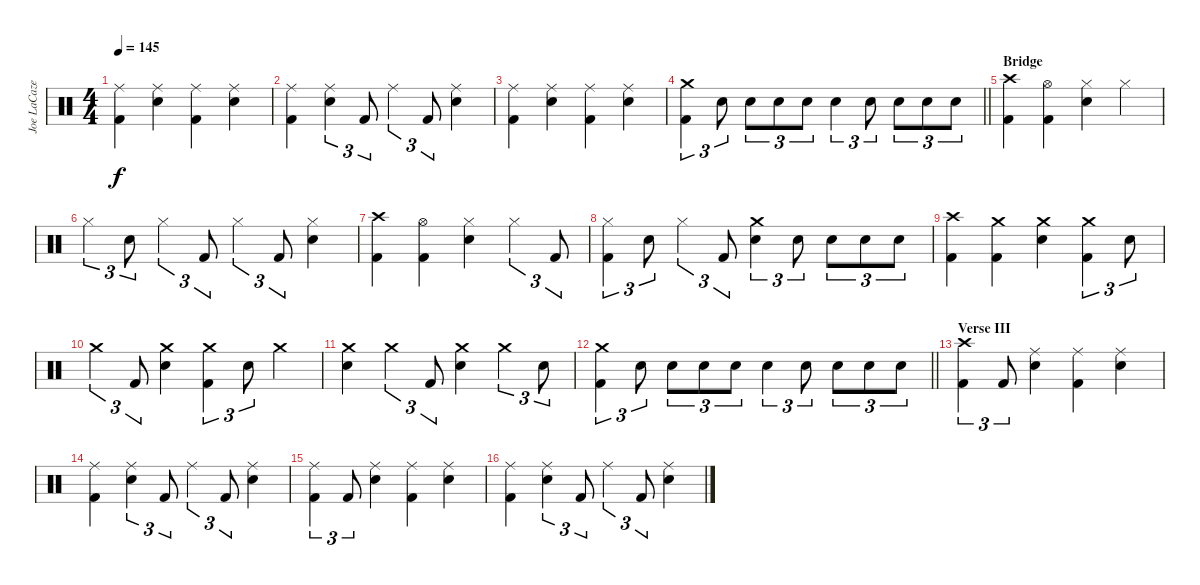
\track ("Joe LaCaze" "Joe LaCaze") {instrument percussion}
\staff {score}
\articulation defaults
\ts (4 4)
\tempo 145
\clef neutral
\ks c
("Ride (middle)" "Kick (hit) 2").4{dy f} ("Ride (middle)" "Electric Snare (hit)").4 ("Ride (middle)" "Kick (hit) 2").4 ("Ride (middle)" "Electric Snare (hit)").4 |
("Ride (middle)" "Kick (hit) 2").4 ("Ride (middle)" "Electric Snare (hit)").4{tu (3 2)} "Kick (hit) 2".8{tu (3 2)} "Ride (middle)".4{tu (3 2)} "Kick (hit) 2".8{tu (3 2)} ("Ride (middle)" "Electric Snare (hit)").4 |
("Ride (middle)" "Kick (hit) 2").4 ("Ride (middle)" "Electric Snare (hit)").4 ("Ride (middle)" "Kick (hit) 2").4 ("Ride (middle)" "Electric Snare (hit)").4 |
\barLineRight lightlight
("Crash medium (hit)" "Kick (hit) 2").4{tu (3 2)} "Electric Snare (hit)".8{tu (3 2)} "Electric Snare (hit)".8{tu (3 2)} "Electric Snare (hit)".8{tu (3 2)} "Electric Snare (hit)".8{tu (3 2)} "Electric Snare (hit)".4{tu (3 2)} "Electric Snare (hit)".8{tu (3 2)} "Electric Snare (hit)".8{tu (3 2)} "Electric Snare (hit)".8{tu (3 2)} "Electric Snare (hit)".8{tu (3 2)} |
\section ("" "Bridge")
("Crash high (hit)" "Kick (hit) 2").4 ("Hi-Hat (open)" "Kick (hit) 2").4 ("Hi-Hat (closed)" "Electric Snare (hit)").4 "Hi-Hat (closed)".4 |
"Hi-Hat (closed)".4{tu (3 2)} "Electric Snare (hit)".8{tu (3 2)} "Hi-Hat (closed)".4{tu (3 2)} "Kick (hit) 2".8{tu (3 2)} "Hi-Hat (closed)".4{tu (3 2)} "Kick (hit) 2".8{tu (3 2)} ("Hi-Hat (closed)" "Electric Snare (hit)").4 |
("Crash high (hit)" "Kick (hit) 2").4 ("Hi-Hat (open)" "Kick (hit) 2").4 ("Hi-Hat (closed)" "Electric Snare (hit)").4 "Hi-Hat (closed)".4{tu (3 2)} "Kick (hit) 2".8{tu (3 2)} |
("Hi-Hat (closed)" "Kick (hit) 2").4{tu (3 2)} "Electric Snare (hit)".8{tu (3 2)} "Hi-Hat (closed)".4{tu (3 2)} "Kick (hit) 2".8{tu (3 2)} ("Crash medium (hit)" "Electric Snare (hit)").4{tu (3 2)} "Electric Snare (hit)".8{tu (3 2)} "Electric Snare (hit)".8{tu (3 2)} "Electric Snare (hit)".8{tu (3 2)} "Electric Snare (hit)".8{tu (3 2)} |
("Crash high (hit)" "Kick (hit) 2").4 ("Crash medium (hit)" "Kick (hit) 2").4 ("Crash medium (hit)" "Electric Snare (hit)").4 ("Crash medium (hit)" "Kick (hit) 2").4{tu (3 2)} "Electric Snare (hit)".8{tu (3 2)} |
"Crash medium (hit)".4{tu (3 2)} "Kick (hit) 2".8{tu (3 2)} ("Crash medium (hit)" "Electric Snare (hit)").4 ("Crash medium (hit)" "Kick (hit) 2").4{tu (3 2)} "Electric Snare (hit)".8{tu (3 2)} "Crash medium (hit)".4 |
("Crash medium (hit)" "Electric Snare (hit)").4 "Crash medium (hit)".4{tu (3 2)} "Kick (hit) 2".8{tu (3 2)} ("Crash medium (hit)" "Electric Snare (hit)").4 "Crash medium (hit)".4{tu (3 2)} "Electric Snare (hit)".8{tu (3 2)} |
\barLineRight lightlight
("Crash medium (hit)" "Kick (hit) 2").4{tu (3 2)} "Electric Snare (hit)".8{tu (3 2)} "Electric Snare (hit)".8{tu (3 2)} "Electric Snare (hit)".8{tu (3 2)} "Electric Snare (hit)".8{tu (3 2)} "Electric Snare (hit)".4{tu (3 2)} "Electric Snare (hit)".8{tu (3 2)} "Electric Snare (hit)".8{tu (3 2)} "Electric Snare (hit)".8{tu (3 2)} "Electric Snare (hit)".8{tu (3 2)} |
\section ("" "Verse III")
("Crash high (hit)" "Kick (hit) 2").4{tu (3 2)} "Kick (hit) 2".8{tu (3 2)} ("Ride (middle)" "Electric Snare (hit)").4 ("Ride (middle)" "Kick (hit) 2").4 ("Ride (middle)" "Electric Snare (hit)").4 |
("Ride (middle)" "Kick (hit) 2").4 ("Ride (middle)" "Electric Snare (hit)").4{tu (3 2)} "Kick (hit) 2".8{tu (3 2)} "Ride (middle)".4{tu (3 2)} "Kick (hit) 2".8{tu (3 2)} ("Ride (middle)" "Electric Snare (hit)").4 |
("Ride (middle)" "Kick (hit) 2").4{tu (3 2)} "Kick (hit) 2".8{tu (3 2)} ("Ride (middle)" "Electric Snare (hit)").4 ("Ride (middle)" "Kick (hit) 2").4 ("Ride (middle)" "Electric Snare (hit)").4 |
("Ride (middle)" "Kick (hit) 2").4 ("Ride (middle)" "Electric Snare (hit)").4{tu (3 2)} "Kick (hit) 2".8{tu (3 2)} "Ride (middle)".4{tu (3 2)} "Kick (hit) 2".8{tu (3 2)} ("Ride (middle)" "Electric Snare (hit)").4
